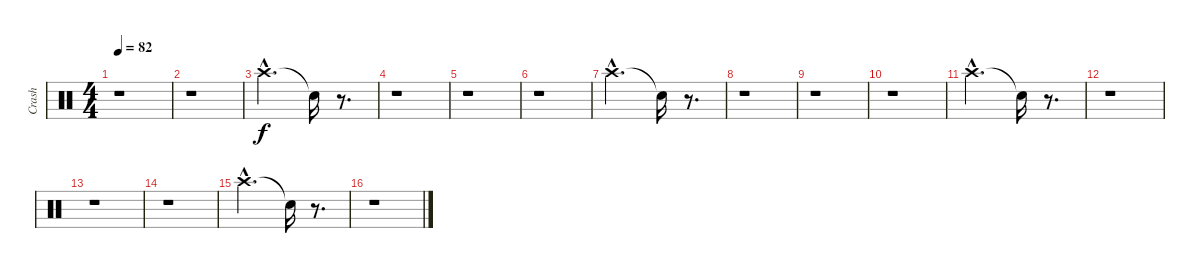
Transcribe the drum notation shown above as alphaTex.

\track ("Crash" "Crash") {instrument percussion}
\staff {score}
\articulation defaults
\ts (4 4)
\tempo 82
\clef neutral
\ks c
r.1{dy ff} |
r.1 |
"Crash high (hit)"{hac}.2{d dy f} "Snare (hit)"{t}.16 r.8{d} |
r.1 |
r.1 |
r.1 |
"Crash high (hit)"{hac}.2{d} "Snare (hit)"{t}.16 r.8{d} |
r.1 |
r.1 |
r.1 |
"Crash high (hit)"{hac}.2{d} "Snare (hit)"{t}.16 r.8{d} |
r.1 |
r.1 |
r.1 |
"Crash high (hit)"{hac}.2{d} "Snare (hit)"{t}.16 r.8{d} |
r.1
